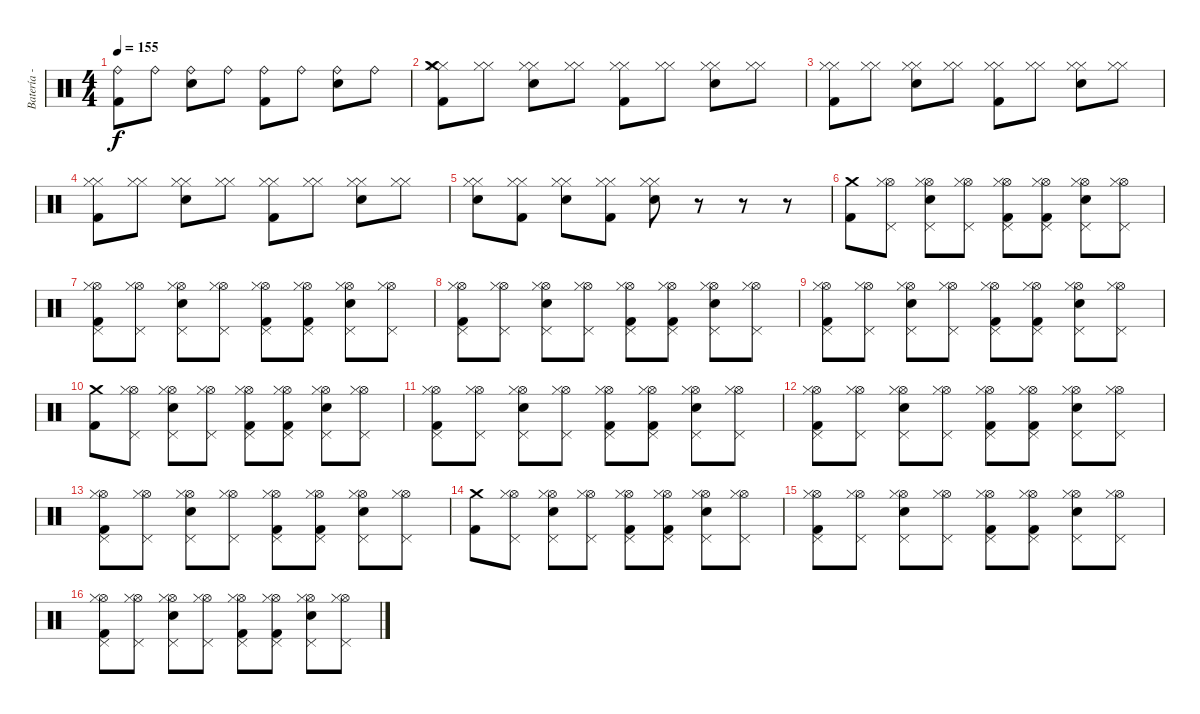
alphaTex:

\track ("Batería - Edu" "Batería - ") {instrument percussion}
\staff {score}
\articulation defaults
\ts (4 4)
\tempo 155
\clef neutral
\ks c
("Ride (bell)" "Kick (hit) 2").8{dy f} "Ride (bell)".8 ("Ride (bell)" "Electric Snare (hit)").8 "Ride (bell)".8 ("Ride (bell)" "Kick (hit) 2").8 "Ride (bell)".8 ("Ride (bell)" "Electric Snare (hit)").8 "Ride (bell)".8 |
("Hi-Hat (closed)" "Hi-Hat (closed)" "Crash medium (hit)" "Kick (hit) 2").8 ("Hi-Hat (closed)" "Hi-Hat (closed)").8 ("Hi-Hat (closed)" "Hi-Hat (closed)" "Electric Snare (hit)").8 ("Hi-Hat (closed)" "Hi-Hat (closed)").8 ("Hi-Hat (closed)" "Hi-Hat (closed)" "Kick (hit) 2").8 ("Hi-Hat (closed)" "Hi-Hat (closed)").8 ("Hi-Hat (closed)" "Hi-Hat (closed)" "Electric Snare (hit)").8 ("Hi-Hat (closed)" "Hi-Hat (closed)").8 |
("Hi-Hat (closed)" "Hi-Hat (closed)" "Kick (hit) 2").8 ("Hi-Hat (closed)" "Hi-Hat (closed)").8 ("Hi-Hat (closed)" "Hi-Hat (closed)" "Electric Snare (hit)").8 ("Hi-Hat (closed)" "Hi-Hat (closed)").8 ("Hi-Hat (closed)" "Hi-Hat (closed)" "Kick (hit) 2").8 ("Hi-Hat (closed)" "Hi-Hat (closed)").8 ("Hi-Hat (closed)" "Hi-Hat (closed)" "Electric Snare (hit)").8 ("Hi-Hat (closed)" "Hi-Hat (closed)").8 |
("Hi-Hat (closed)" "Hi-Hat (closed)" "Kick (hit) 2").8 ("Hi-Hat (closed)" "Hi-Hat (closed)").8 ("Hi-Hat (closed)" "Hi-Hat (closed)" "Electric Snare (hit)").8 ("Hi-Hat (closed)" "Hi-Hat (closed)").8 ("Hi-Hat (closed)" "Hi-Hat (closed)" "Kick (hit) 2").8 ("Hi-Hat (closed)" "Hi-Hat (closed)").8 ("Hi-Hat (closed)" "Hi-Hat (closed)" "Electric Snare (hit)").8 ("Hi-Hat (closed)" "Hi-Hat (closed)").8 |
("Hi-Hat (closed)" "Hi-Hat (closed)" "Electric Snare (hit)").8 ("Hi-Hat (closed)" "Hi-Hat (closed)" "Kick (hit) 2").8 ("Hi-Hat (closed)" "Hi-Hat (closed)" "Electric Snare (hit)").8 ("Hi-Hat (closed)" "Hi-Hat (closed)" "Kick (hit) 2").8 ("Hi-Hat (closed)" "Hi-Hat (closed)" "Electric Snare (hit)").8 r.8 r.8 r.8 |
("Crash medium (hit)" "Kick (hit) 2").8 ("Pedal Hi-Hat (hit)" "Hi-Hat (open)" "Hi-Hat (closed)").8 ("Pedal Hi-Hat (hit)" "Hi-Hat (open)" "Hi-Hat (closed)" "Electric Snare (hit)").8 ("Pedal Hi-Hat (hit)" "Hi-Hat (open)" "Hi-Hat (closed)").8 ("Pedal Hi-Hat (hit)" "Hi-Hat (open)" "Hi-Hat (closed)" "Kick (hit) 2").8 ("Pedal Hi-Hat (hit)" "Hi-Hat (open)" "Hi-Hat (closed)" "Kick (hit) 2").8 ("Pedal Hi-Hat (hit)" "Hi-Hat (open)" "Hi-Hat (closed)" "Electric Snare (hit)").8 ("Pedal Hi-Hat (hit)" "Hi-Hat (open)" "Hi-Hat (closed)").8 |
("Pedal Hi-Hat (hit)" "Hi-Hat (open)" "Hi-Hat (closed)" "Kick (hit) 2").8 ("Pedal Hi-Hat (hit)" "Hi-Hat (open)" "Hi-Hat (closed)").8 ("Pedal Hi-Hat (hit)" "Hi-Hat (open)" "Hi-Hat (closed)" "Electric Snare (hit)").8 ("Pedal Hi-Hat (hit)" "Hi-Hat (open)" "Hi-Hat (closed)").8 ("Pedal Hi-Hat (hit)" "Hi-Hat (open)" "Hi-Hat (closed)" "Kick (hit) 2").8 ("Pedal Hi-Hat (hit)" "Hi-Hat (open)" "Hi-Hat (closed)" "Kick (hit) 2").8 ("Pedal Hi-Hat (hit)" "Hi-Hat (open)" "Hi-Hat (closed)" "Electric Snare (hit)").8 ("Pedal Hi-Hat (hit)" "Hi-Hat (open)" "Hi-Hat (closed)").8 |
("Pedal Hi-Hat (hit)" "Hi-Hat (open)" "Hi-Hat (closed)" "Kick (hit) 2").8 ("Pedal Hi-Hat (hit)" "Hi-Hat (open)" "Hi-Hat (closed)").8 ("Pedal Hi-Hat (hit)" "Hi-Hat (open)" "Hi-Hat (closed)" "Electric Snare (hit)").8 ("Pedal Hi-Hat (hit)" "Hi-Hat (open)" "Hi-Hat (closed)").8 ("Pedal Hi-Hat (hit)" "Hi-Hat (open)" "Hi-Hat (closed)" "Kick (hit) 2").8 ("Pedal Hi-Hat (hit)" "Hi-Hat (open)" "Hi-Hat (closed)" "Kick (hit) 2").8 ("Pedal Hi-Hat (hit)" "Hi-Hat (open)" "Hi-Hat (closed)" "Electric Snare (hit)").8 ("Pedal Hi-Hat (hit)" "Hi-Hat (open)" "Hi-Hat (closed)").8 |
("Pedal Hi-Hat (hit)" "Hi-Hat (open)" "Hi-Hat (closed)" "Kick (hit) 2").8 ("Pedal Hi-Hat (hit)" "Hi-Hat (open)" "Hi-Hat (closed)").8 ("Pedal Hi-Hat (hit)" "Hi-Hat (open)" "Hi-Hat (closed)" "Electric Snare (hit)").8 ("Pedal Hi-Hat (hit)" "Hi-Hat (open)" "Hi-Hat (closed)").8 ("Pedal Hi-Hat (hit)" "Hi-Hat (open)" "Hi-Hat (closed)" "Kick (hit) 2").8 ("Pedal Hi-Hat (hit)" "Hi-Hat (open)" "Hi-Hat (closed)" "Kick (hit) 2").8 ("Pedal Hi-Hat (hit)" "Hi-Hat (open)" "Hi-Hat (closed)" "Electric Snare (hit)").8 ("Pedal Hi-Hat (hit)" "Hi-Hat (open)" "Hi-Hat (closed)").8 |
("Crash medium (hit)" "Kick (hit) 2").8 ("Pedal Hi-Hat (hit)" "Hi-Hat (open)" "Hi-Hat (closed)").8 ("Pedal Hi-Hat (hit)" "Hi-Hat (open)" "Hi-Hat (closed)" "Electric Snare (hit)").8 ("Pedal Hi-Hat (hit)" "Hi-Hat (open)" "Hi-Hat (closed)").8 ("Pedal Hi-Hat (hit)" "Hi-Hat (open)" "Hi-Hat (closed)" "Kick (hit) 2").8 ("Pedal Hi-Hat (hit)" "Hi-Hat (open)" "Hi-Hat (closed)" "Kick (hit) 2").8 ("Pedal Hi-Hat (hit)" "Hi-Hat (open)" "Hi-Hat (closed)" "Electric Snare (hit)").8 ("Pedal Hi-Hat (hit)" "Hi-Hat (open)" "Hi-Hat (closed)").8 |
("Pedal Hi-Hat (hit)" "Hi-Hat (open)" "Hi-Hat (closed)" "Kick (hit) 2").8 ("Pedal Hi-Hat (hit)" "Hi-Hat (open)" "Hi-Hat (closed)").8 ("Pedal Hi-Hat (hit)" "Hi-Hat (open)" "Hi-Hat (closed)" "Electric Snare (hit)").8 ("Pedal Hi-Hat (hit)" "Hi-Hat (open)" "Hi-Hat (closed)").8 ("Pedal Hi-Hat (hit)" "Hi-Hat (open)" "Hi-Hat (closed)" "Kick (hit) 2").8 ("Pedal Hi-Hat (hit)" "Hi-Hat (open)" "Hi-Hat (closed)" "Kick (hit) 2").8 ("Pedal Hi-Hat (hit)" "Hi-Hat (open)" "Hi-Hat (closed)" "Electric Snare (hit)").8 ("Pedal Hi-Hat (hit)" "Hi-Hat (open)" "Hi-Hat (closed)").8 |
("Pedal Hi-Hat (hit)" "Hi-Hat (open)" "Hi-Hat (closed)" "Kick (hit) 2").8 ("Pedal Hi-Hat (hit)" "Hi-Hat (open)" "Hi-Hat (closed)").8 ("Pedal Hi-Hat (hit)" "Hi-Hat (open)" "Hi-Hat (closed)" "Electric Snare (hit)").8 ("Pedal Hi-Hat (hit)" "Hi-Hat (open)" "Hi-Hat (closed)").8 ("Pedal Hi-Hat (hit)" "Hi-Hat (open)" "Hi-Hat (closed)" "Kick (hit) 2").8 ("Pedal Hi-Hat (hit)" "Hi-Hat (open)" "Hi-Hat (closed)" "Kick (hit) 2").8 ("Pedal Hi-Hat (hit)" "Hi-Hat (open)" "Hi-Hat (closed)" "Electric Snare (hit)").8 ("Pedal Hi-Hat (hit)" "Hi-Hat (open)" "Hi-Hat (closed)").8 |
("Pedal Hi-Hat (hit)" "Hi-Hat (open)" "Hi-Hat (closed)" "Kick (hit) 2").8 ("Pedal Hi-Hat (hit)" "Hi-Hat (open)" "Hi-Hat (closed)").8 ("Pedal Hi-Hat (hit)" "Hi-Hat (open)" "Hi-Hat (closed)" "Electric Snare (hit)").8 ("Pedal Hi-Hat (hit)" "Hi-Hat (open)" "Hi-Hat (closed)").8 ("Pedal Hi-Hat (hit)" "Hi-Hat (open)" "Hi-Hat (closed)" "Kick (hit) 2").8 ("Pedal Hi-Hat (hit)" "Hi-Hat (open)" "Hi-Hat (closed)" "Kick (hit) 2").8 ("Pedal Hi-Hat (hit)" "Hi-Hat (open)" "Hi-Hat (closed)" "Electric Snare (hit)").8 ("Pedal Hi-Hat (hit)" "Hi-Hat (open)" "Hi-Hat (closed)").8 |
("Crash medium (hit)" "Kick (hit) 2").8 ("Pedal Hi-Hat (hit)" "Hi-Hat (open)" "Hi-Hat (closed)").8 ("Pedal Hi-Hat (hit)" "Hi-Hat (open)" "Hi-Hat (closed)" "Electric Snare (hit)").8 ("Pedal Hi-Hat (hit)" "Hi-Hat (open)" "Hi-Hat (closed)").8 ("Pedal Hi-Hat (hit)" "Hi-Hat (open)" "Hi-Hat (closed)" "Kick (hit) 2").8 ("Pedal Hi-Hat (hit)" "Hi-Hat (open)" "Hi-Hat (closed)" "Kick (hit) 2").8 ("Pedal Hi-Hat (hit)" "Hi-Hat (open)" "Hi-Hat (closed)" "Electric Snare (hit)").8 ("Pedal Hi-Hat (hit)" "Hi-Hat (open)" "Hi-Hat (closed)").8 |
("Pedal Hi-Hat (hit)" "Hi-Hat (open)" "Hi-Hat (closed)" "Kick (hit) 2").8 ("Pedal Hi-Hat (hit)" "Hi-Hat (open)" "Hi-Hat (closed)").8 ("Pedal Hi-Hat (hit)" "Hi-Hat (open)" "Hi-Hat (closed)" "Electric Snare (hit)").8 ("Pedal Hi-Hat (hit)" "Hi-Hat (open)" "Hi-Hat (closed)").8 ("Pedal Hi-Hat (hit)" "Hi-Hat (open)" "Hi-Hat (closed)" "Kick (hit) 2").8 ("Pedal Hi-Hat (hit)" "Hi-Hat (open)" "Hi-Hat (closed)" "Kick (hit) 2").8 ("Pedal Hi-Hat (hit)" "Hi-Hat (open)" "Hi-Hat (closed)" "Electric Snare (hit)").8 ("Pedal Hi-Hat (hit)" "Hi-Hat (open)" "Hi-Hat (closed)").8 |
("Pedal Hi-Hat (hit)" "Hi-Hat (open)" "Hi-Hat (closed)" "Kick (hit) 2").8 ("Pedal Hi-Hat (hit)" "Hi-Hat (open)" "Hi-Hat (closed)").8 ("Pedal Hi-Hat (hit)" "Hi-Hat (open)" "Hi-Hat (closed)" "Electric Snare (hit)").8 ("Pedal Hi-Hat (hit)" "Hi-Hat (open)" "Hi-Hat (closed)").8 ("Pedal Hi-Hat (hit)" "Hi-Hat (open)" "Hi-Hat (closed)" "Kick (hit) 2").8 ("Pedal Hi-Hat (hit)" "Hi-Hat (open)" "Hi-Hat (closed)" "Kick (hit) 2").8 ("Pedal Hi-Hat (hit)" "Hi-Hat (open)" "Hi-Hat (closed)" "Electric Snare (hit)").8 ("Pedal Hi-Hat (hit)" "Hi-Hat (open)" "Hi-Hat (closed)").8
